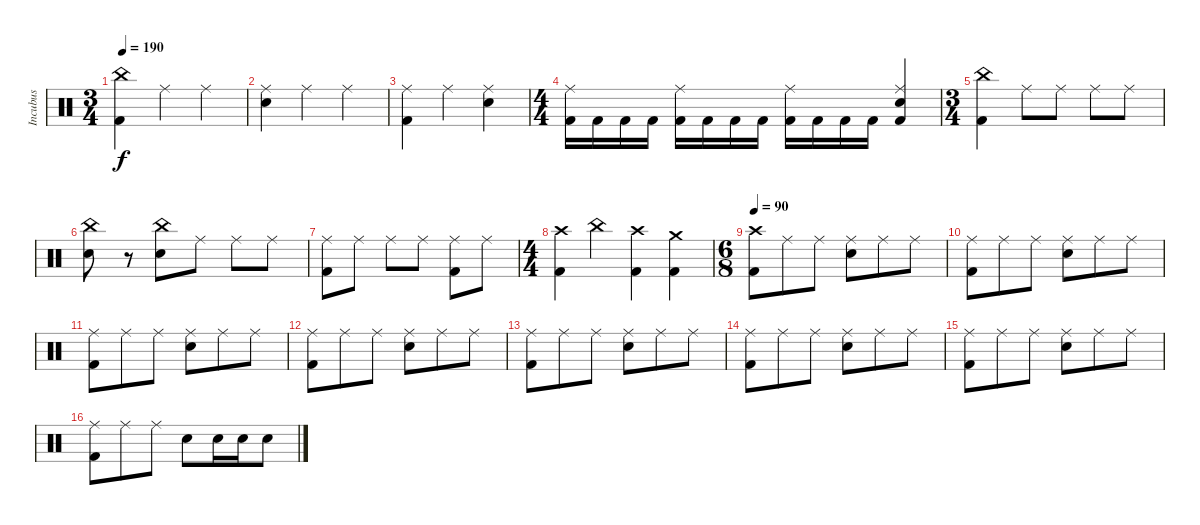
\track ("Incubus" "Incubus") {instrument percussion}
\staff {score}
\articulation defaults
\ts (3 4)
\tempo 190
\clef neutral
\ks c
("China (hit)" "Kick (hit) 2").4{dy f} "Ride (middle)".4 "Ride (middle)".4 |
("Ride (middle)" "Electric Snare (hit)").4 "Ride (middle)".4 "Ride (middle)".4 |
("Ride (middle)" "Kick (hit) 2").4 "Ride (middle)".4 ("Ride (middle)" "Electric Snare (hit)").4 |
\ts (4 4)
("Ride (middle)" "Kick (hit) 2").16 "Kick (hit) 2".16 "Kick (hit) 2".16 "Kick (hit) 2".16 ("Ride (middle)" "Kick (hit) 2").16 "Kick (hit) 2".16 "Kick (hit) 2".16 "Kick (hit) 2".16 ("Ride (middle)" "Kick (hit) 2").16 "Kick (hit) 2".16 "Kick (hit) 2".16 "Kick (hit) 2".16 ("Ride (middle)" "Electric Snare (hit)" "Kick (hit) 2").4 |
\ts (3 4)
("China (hit)" "Kick (hit) 2").4 "Ride (middle)".8 "Ride (middle)".8 "Ride (middle)".8 "Ride (middle)".8 |
("China (hit)" "Electric Snare (hit)").8 r.8 ("China (hit)" "Electric Snare (hit)").8 "Ride (middle)".8 "Ride (middle)".8 "Ride (middle)".8 |
("Ride (middle)" "Kick (hit) 2").8 "Ride (middle)".8 "Ride (middle)".8 "Ride (middle)".8 ("Ride (middle)" "Kick (hit) 2").8 "Ride (middle)".8 |
\ts (4 4)
("Crash high (hit)" "Kick (hit) 2").4 "China (hit)".4 ("Crash high (hit)" "Kick (hit) 2").4 ("Crash medium (hit)" "Kick (hit) 2").4 |
\ts (6 8)
\tempo 90
("Crash high (hit)" "Kick (hit) 2").8 "Ride (middle)".8 "Ride (middle)".8 ("Ride (middle)" "Electric Snare (hit)").8 "Ride (middle)".8 "Ride (middle)".8 |
("Ride (middle)" "Kick (hit) 2").8 "Ride (middle)".8 "Ride (middle)".8 ("Ride (middle)" "Electric Snare (hit)").8 "Ride (middle)".8 "Ride (middle)".8 |
("Ride (middle)" "Kick (hit) 2").8 "Ride (middle)".8 "Ride (middle)".8 ("Ride (middle)" "Electric Snare (hit)").8 "Ride (middle)".8 "Ride (middle)".8 |
("Ride (middle)" "Kick (hit) 2").8 "Ride (middle)".8 "Ride (middle)".8 ("Ride (middle)" "Electric Snare (hit)").8 "Ride (middle)".8 "Ride (middle)".8 |
("Ride (middle)" "Kick (hit) 2").8 "Ride (middle)".8 "Ride (middle)".8 ("Ride (middle)" "Electric Snare (hit)").8 "Ride (middle)".8 "Ride (middle)".8 |
("Ride (middle)" "Kick (hit) 2").8 "Ride (middle)".8 "Ride (middle)".8 ("Ride (middle)" "Electric Snare (hit)").8 "Ride (middle)".8 "Ride (middle)".8 |
("Ride (middle)" "Kick (hit) 2").8 "Ride (middle)".8 "Ride (middle)".8 ("Ride (middle)" "Electric Snare (hit)").8 "Ride (middle)".8 "Ride (middle)".8 |
("Ride (middle)" "Kick (hit) 2").8 "Ride (middle)".8 "Ride (middle)".8 "Electric Snare (hit)".8 "Electric Snare (hit)".16 "Electric Snare (hit)".16 "Electric Snare (hit)".8
